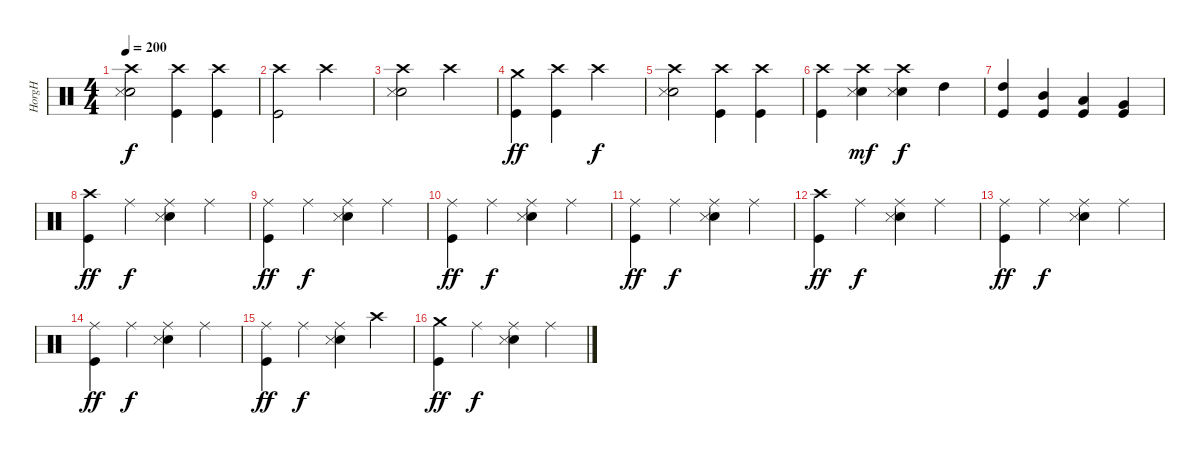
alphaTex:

\track ("HorgH" "HorgH") {instrument percussion}
\staff {score}
\articulation defaults
\ts (4 4)
\tempo 200
\clef neutral
\ks c
("Crash high (hit)" "Electric Snare (hit)" "Snare (side stick) 3").2{dy f} ("Crash high (hit)" "Kick (hit)").4 ("Crash high (hit)" "Kick (hit)").4 |
("Crash high (hit)" "Kick (hit)").2 "Crash high (hit)".2 |
("Crash high (hit)" "Electric Snare (hit)" "Snare (side stick) 3").2 "Crash high (hit)".2 |
("Crash medium (hit)" "Kick (hit)").4{dy ff} ("Crash high (hit)" "Kick (hit)").4 "Crash high (hit)".2{dy f} |
("Crash high (hit)" "Electric Snare (hit)" "Snare (side stick) 3").2 ("Crash high (hit)" "Kick (hit)").4 ("Crash high (hit)" "Kick (hit)").4 |
("Crash high (hit)" "Kick (hit)").4 ("Crash high (hit)" "Electric Snare (hit)" "Snare (side stick) 3").4{dy mf} ("Crash high (hit)" "Electric Snare (hit)" "Snare (side stick) 3").4{dy f} "High Tom (hit)".4 |
("High Tom (hit)" "Kick (hit)").4 ("Mid Tom (hit)" "Kick (hit)").4 ("Low Tom (hit)" "Kick (hit)").4 ("Very Low Tom (hit)" "Kick (hit)").4 |
\section ("" "")
("Crash high (hit)" "Kick (hit)").4{dy ff} "Ride (middle)".4{dy f} ("Ride (middle)" "Electric Snare (hit)" "Snare (side stick) 3").4 "Ride (middle)".4 |
("Ride (middle)" "Kick (hit)").4{dy ff} "Ride (middle)".4{dy f} ("Ride (middle)" "Electric Snare (hit)" "Snare (side stick) 3").4 "Ride (middle)".4 |
("Ride (middle)" "Kick (hit)").4{dy ff} "Ride (middle)".4{dy f} ("Ride (middle)" "Electric Snare (hit)" "Snare (side stick) 3").4 "Ride (middle)".4 |
("Ride (middle)" "Kick (hit)").4{dy ff} "Ride (middle)".4{dy f} ("Ride (middle)" "Electric Snare (hit)" "Snare (side stick) 3").4 "Ride (middle)".4 |
("Crash high (hit)" "Kick (hit)").4{dy ff} "Ride (middle)".4{dy f} ("Ride (middle)" "Electric Snare (hit)" "Snare (side stick) 3").4 "Ride (middle)".4 |
("Ride (middle)" "Kick (hit)").4{dy ff} "Ride (middle)".4{dy f} ("Ride (middle)" "Electric Snare (hit)" "Snare (side stick) 3").4 "Ride (middle)".4 |
("Ride (middle)" "Kick (hit)").4{dy ff} "Ride (middle)".4{dy f} ("Ride (middle)" "Electric Snare (hit)" "Snare (side stick) 3").4 "Ride (middle)".4 |
("Ride (middle)" "Kick (hit)").4{dy ff} "Ride (middle)".4{dy f} ("Ride (middle)" "Electric Snare (hit)" "Snare (side stick) 3").4 "Crash high (hit)".4 |
("Crash medium (hit)" "Kick (hit)").4{dy ff} "Ride (middle)".4{dy f} ("Ride (middle)" "Electric Snare (hit)" "Snare (side stick) 3").4 "Ride (middle)".4
